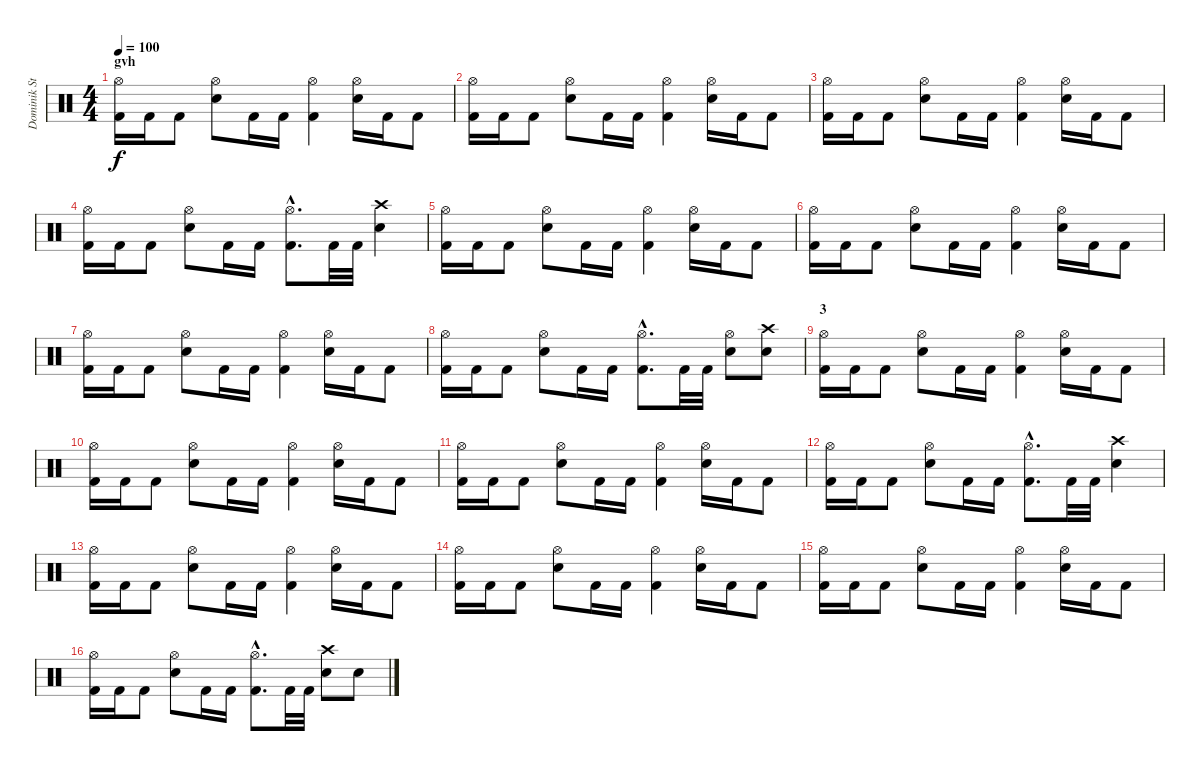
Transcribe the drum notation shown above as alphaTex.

\track ("Dominik Storch" "Dominik St") {instrument percussion}
\staff {score}
\articulation defaults
\ts (4 4)
\section ("" "gvh")
\tempo 100
\clef neutral
\ks c
("Hi-Hat (open)" "Kick (hit) 2").16{dy f} "Kick (hit) 2".16 "Kick (hit) 2".8 ("Hi-Hat (open)" "Snare (hit) 2").8 "Kick (hit) 2".16 "Kick (hit) 2".16 ("Hi-Hat (open)" "Kick (hit) 2").4 ("Hi-Hat (open)" "Snare (hit) 2").16 "Kick (hit) 2".16 "Kick (hit) 2".8 |
("Hi-Hat (open)" "Kick (hit) 2").16 "Kick (hit) 2".16 "Kick (hit) 2".8 ("Hi-Hat (open)" "Snare (hit) 2").8 "Kick (hit) 2".16 "Kick (hit) 2".16 ("Hi-Hat (open)" "Kick (hit) 2").4 ("Hi-Hat (open)" "Snare (hit) 2").16 "Kick (hit) 2".16 "Kick (hit) 2".8 |
("Hi-Hat (open)" "Kick (hit) 2").16 "Kick (hit) 2".16 "Kick (hit) 2".8 ("Hi-Hat (open)" "Snare (hit) 2").8 "Kick (hit) 2".16 "Kick (hit) 2".16 ("Hi-Hat (open)" "Kick (hit) 2").4 ("Hi-Hat (open)" "Snare (hit) 2").16 "Kick (hit) 2".16 "Kick (hit) 2".8 |
("Hi-Hat (open)" "Kick (hit) 2").16 "Kick (hit) 2".16 "Kick (hit) 2".8 ("Hi-Hat (open)" "Snare (hit) 2").8 "Kick (hit) 2".16 "Kick (hit) 2".16 ("Hi-Hat (open)"{hac} "Kick (hit) 2"{hac}).8{d} "Kick (hit) 2".32 "Kick (hit) 2".32 ("Crash high (hit)" "Snare (hit) 2").4 |
("Hi-Hat (open)" "Kick (hit) 2").16 "Kick (hit) 2".16 "Kick (hit) 2".8 ("Hi-Hat (open)" "Snare (hit) 2").8 "Kick (hit) 2".16 "Kick (hit) 2".16 ("Hi-Hat (open)" "Kick (hit) 2").4 ("Hi-Hat (open)" "Snare (hit) 2").16 "Kick (hit) 2".16 "Kick (hit) 2".8 |
("Hi-Hat (open)" "Kick (hit) 2").16 "Kick (hit) 2".16 "Kick (hit) 2".8 ("Hi-Hat (open)" "Snare (hit) 2").8 "Kick (hit) 2".16 "Kick (hit) 2".16 ("Hi-Hat (open)" "Kick (hit) 2").4 ("Hi-Hat (open)" "Snare (hit) 2").16 "Kick (hit) 2".16 "Kick (hit) 2".8 |
("Hi-Hat (open)" "Kick (hit) 2").16 "Kick (hit) 2".16 "Kick (hit) 2".8 ("Hi-Hat (open)" "Snare (hit) 2").8 "Kick (hit) 2".16 "Kick (hit) 2".16 ("Hi-Hat (open)" "Kick (hit) 2").4 ("Hi-Hat (open)" "Snare (hit) 2").16 "Kick (hit) 2".16 "Kick (hit) 2".8 |
("Hi-Hat (open)" "Kick (hit) 2").16 "Kick (hit) 2".16 "Kick (hit) 2".8 ("Hi-Hat (open)" "Snare (hit) 2").8 "Kick (hit) 2".16 "Kick (hit) 2".16 ("Hi-Hat (open)"{hac} "Kick (hit) 2"{hac}).8{d} "Kick (hit) 2".32 "Kick (hit) 2".32 ("Hi-Hat (open)" "Snare (hit) 2").8 ("Crash high (hit)" "Snare (hit) 2").8 |
\section ("" "3")
("Hi-Hat (open)" "Kick (hit) 2").16 "Kick (hit) 2".16 "Kick (hit) 2".8 ("Hi-Hat (open)" "Snare (hit) 2").8 "Kick (hit) 2".16 "Kick (hit) 2".16 ("Hi-Hat (open)" "Kick (hit) 2").4 ("Hi-Hat (open)" "Snare (hit) 2").16 "Kick (hit) 2".16 "Kick (hit) 2".8 |
("Hi-Hat (open)" "Kick (hit) 2").16 "Kick (hit) 2".16 "Kick (hit) 2".8 ("Hi-Hat (open)" "Snare (hit) 2").8 "Kick (hit) 2".16 "Kick (hit) 2".16 ("Hi-Hat (open)" "Kick (hit) 2").4 ("Hi-Hat (open)" "Snare (hit) 2").16 "Kick (hit) 2".16 "Kick (hit) 2".8 |
("Hi-Hat (open)" "Kick (hit) 2").16 "Kick (hit) 2".16 "Kick (hit) 2".8 ("Hi-Hat (open)" "Snare (hit) 2").8 "Kick (hit) 2".16 "Kick (hit) 2".16 ("Hi-Hat (open)" "Kick (hit) 2").4 ("Hi-Hat (open)" "Snare (hit) 2").16 "Kick (hit) 2".16 "Kick (hit) 2".8 |
("Hi-Hat (open)" "Kick (hit) 2").16 "Kick (hit) 2".16 "Kick (hit) 2".8 ("Hi-Hat (open)" "Snare (hit) 2").8 "Kick (hit) 2".16 "Kick (hit) 2".16 ("Hi-Hat (open)"{hac} "Kick (hit) 2"{hac}).8{d} "Kick (hit) 2".32 "Kick (hit) 2".32 ("Crash high (hit)" "Snare (hit) 2").4 |
("Hi-Hat (open)" "Kick (hit) 2").16 "Kick (hit) 2".16 "Kick (hit) 2".8 ("Hi-Hat (open)" "Snare (hit) 2").8 "Kick (hit) 2".16 "Kick (hit) 2".16 ("Hi-Hat (open)" "Kick (hit) 2").4 ("Hi-Hat (open)" "Snare (hit) 2").16 "Kick (hit) 2".16 "Kick (hit) 2".8 |
("Hi-Hat (open)" "Kick (hit) 2").16 "Kick (hit) 2".16 "Kick (hit) 2".8 ("Hi-Hat (open)" "Snare (hit) 2").8 "Kick (hit) 2".16 "Kick (hit) 2".16 ("Hi-Hat (open)" "Kick (hit) 2").4 ("Hi-Hat (open)" "Snare (hit) 2").16 "Kick (hit) 2".16 "Kick (hit) 2".8 |
("Hi-Hat (open)" "Kick (hit) 2").16 "Kick (hit) 2".16 "Kick (hit) 2".8 ("Hi-Hat (open)" "Snare (hit) 2").8 "Kick (hit) 2".16 "Kick (hit) 2".16 ("Hi-Hat (open)" "Kick (hit) 2").4 ("Hi-Hat (open)" "Snare (hit) 2").16 "Kick (hit) 2".16 "Kick (hit) 2".8 |
("Hi-Hat (open)" "Kick (hit) 2").16 "Kick (hit) 2".16 "Kick (hit) 2".8 ("Hi-Hat (open)" "Snare (hit) 2").8 "Kick (hit) 2".16 "Kick (hit) 2".16 ("Hi-Hat (open)"{hac} "Kick (hit) 2"{hac}).8{d} "Kick (hit) 2".32 "Kick (hit) 2".32 ("Crash high (hit)" "Snare (hit) 2").8 "Snare (hit) 2".8
